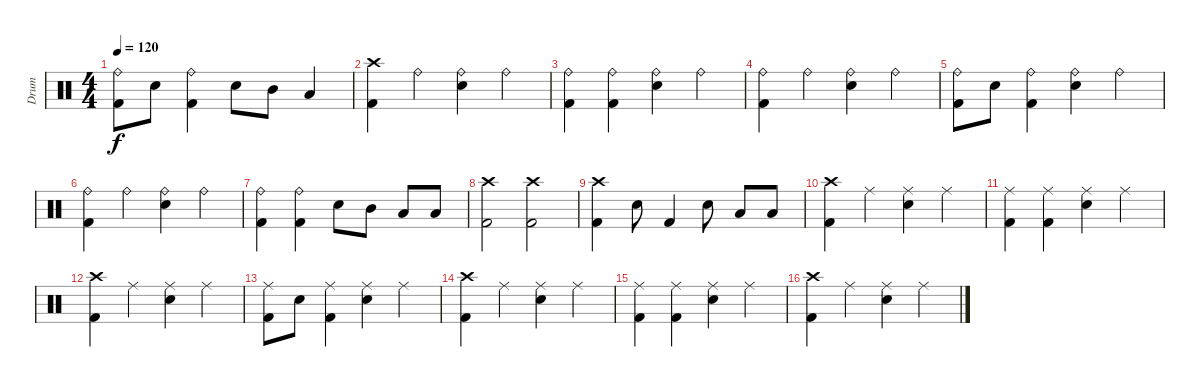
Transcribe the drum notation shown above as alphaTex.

\track ("Drum" "Drum") {instrument percussion}
\staff {score}
\articulation defaults
\ts (4 4)
\tempo 120
\clef neutral
\ks c
("Ride (bell)" "Kick (hit) 2").8{dy f} "Snare (hit) 2".8 ("Ride (bell)" "Kick (hit) 2").4 "Snare (hit) 2".8 "Mid Tom (hit)".8 "Low Tom (hit)".4 |
("Crash high (hit)" "Kick (hit) 2").4 "Ride (bell)".4 ("Ride (bell)" "Snare (hit) 2").4 "Ride (bell)".4 |
("Ride (bell)" "Kick (hit) 2").4 ("Ride (bell)" "Kick (hit) 2").4 ("Ride (bell)" "Snare (hit) 2").4 "Ride (bell)".4 |
("Ride (bell)" "Kick (hit) 2").4 "Ride (bell)".4 ("Ride (bell)" "Snare (hit) 2").4 "Ride (bell)".4 |
("Ride (bell)" "Kick (hit) 2").8 "Snare (hit) 2".8 ("Ride (bell)" "Kick (hit) 2").4 ("Ride (bell)" "Snare (hit) 2").4 "Ride (bell)".4 |
("Ride (bell)" "Kick (hit) 2").4 "Ride (bell)".4 ("Ride (bell)" "Snare (hit) 2").4 "Ride (bell)".4 |
("Ride (bell)" "Kick (hit) 2").4 ("Ride (bell)" "Kick (hit) 2").4 "Snare (hit) 2".8 "Mid Tom (hit)".8 "Low Tom (hit)".8 "Low Floor Tom (hit)".8 |
("Crash high (hit)" "Kick (hit) 2").2 ("Kick (hit) 2" "Crash high (hit)").2 |
("Kick (hit) 2" "Crash high (hit)").4 "Snare (hit) 2".8 "Kick (hit) 2".4 "Snare (hit) 2".8 "Low Tom (hit)".8 "Low Floor Tom (hit)".8 |
("Crash high (hit)" "Kick (hit) 2").4 "Ride (middle)".4 ("Ride (middle)" "Snare (hit) 2").4 "Ride (middle)".4 |
("Ride (middle)" "Kick (hit) 2").4 ("Ride (middle)" "Kick (hit) 2").4 ("Snare (hit) 2" "Ride (middle)").4 "Ride (middle)".4 |
("Crash high (hit)" "Kick (hit) 2").4 "Ride (middle)".4 ("Ride (middle)" "Snare (hit) 2").4 "Ride (middle)".4 |
("Ride (middle)" "Kick (hit) 2").8 "Snare (hit) 2".8 ("Ride (middle)" "Kick (hit) 2").4 ("Ride (middle)" "Snare (hit) 2").4 "Ride (middle)".4 |
("Crash high (hit)" "Kick (hit) 2").4 "Ride (middle)".4 ("Ride (middle)" "Snare (hit) 2").4 "Ride (middle)".4 |
("Ride (middle)" "Kick (hit) 2").4 ("Ride (middle)" "Kick (hit) 2").4 ("Snare (hit) 2" "Ride (middle)").4 "Ride (middle)".4 |
("Crash high (hit)" "Kick (hit) 2").4 "Ride (middle)".4 ("Ride (middle)" "Snare (hit) 2").4 "Ride (middle)".4
